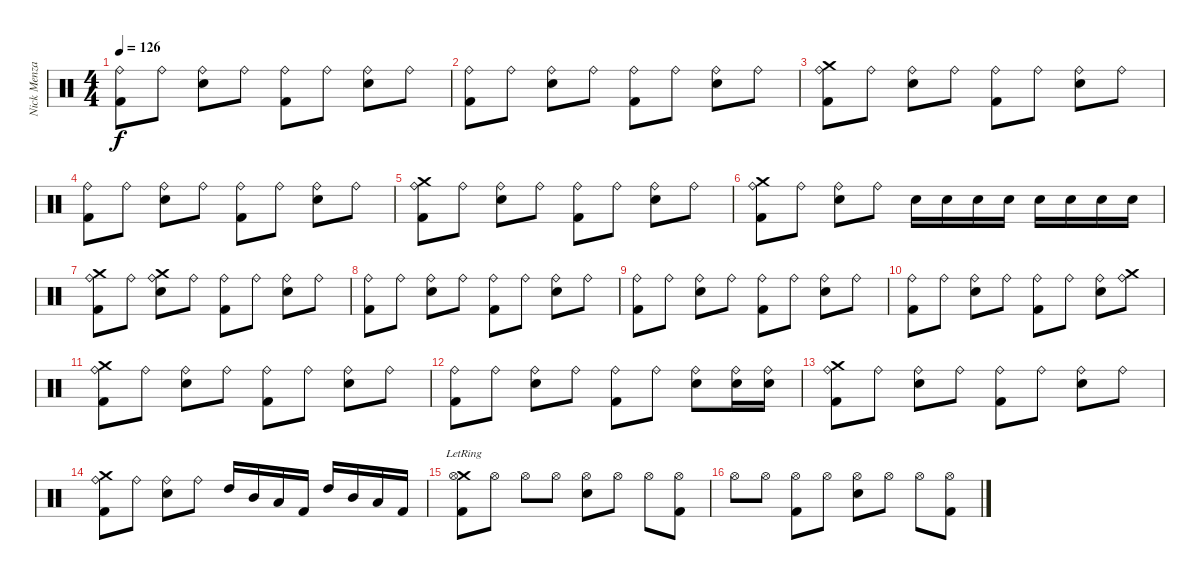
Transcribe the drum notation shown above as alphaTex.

\track ("Nick Menza" "Nick Menza") {instrument percussion}
\staff {score}
\articulation defaults
\ts (4 4)
\tempo 126
\clef neutral
\ks c
("Ride (bell)" "Kick (hit) 2").8{dy f} "Ride (bell)".8 ("Electric Snare (hit)" "Ride (bell)").8 "Ride (bell)".8 ("Ride (bell)" "Kick (hit) 2").8 "Ride (bell)".8 ("Electric Snare (hit)" "Ride (bell)").8 "Ride (bell)".8 |
("Ride (bell)" "Kick (hit) 2").8 "Ride (bell)".8 ("Electric Snare (hit)" "Ride (bell)").8 "Ride (bell)".8 ("Ride (bell)" "Kick (hit) 2").8 "Ride (bell)".8 ("Electric Snare (hit)" "Ride (bell)").8 "Ride (bell)".8 |
("Crash medium (hit)" "Ride (bell)" "Kick (hit) 2").8 "Ride (bell)".8 ("Electric Snare (hit)" "Ride (bell)").8 "Ride (bell)".8 ("Ride (bell)" "Kick (hit) 2").8 "Ride (bell)".8 ("Electric Snare (hit)" "Ride (bell)").8 "Ride (bell)".8 |
("Ride (bell)" "Kick (hit) 2").8 "Ride (bell)".8 ("Electric Snare (hit)" "Ride (bell)").8 "Ride (bell)".8 ("Ride (bell)" "Kick (hit) 2").8 "Ride (bell)".8 ("Electric Snare (hit)" "Ride (bell)").8 "Ride (bell)".8 |
("Crash medium (hit)" "Ride (bell)" "Kick (hit) 2").8 "Ride (bell)".8 ("Electric Snare (hit)" "Ride (bell)").8 "Ride (bell)".8 ("Ride (bell)" "Kick (hit) 2").8 "Ride (bell)".8 ("Electric Snare (hit)" "Ride (bell)").8 "Ride (bell)".8 |
("Crash medium (hit)" "Ride (bell)" "Kick (hit) 2").8 "Ride (bell)".8 ("Electric Snare (hit)" "Ride (bell)").8 "Ride (bell)".8 "Electric Snare (hit)".16 "Electric Snare (hit)".16 "Electric Snare (hit)".16 "Electric Snare (hit)".16 "Electric Snare (hit)".16 "Electric Snare (hit)".16 "Electric Snare (hit)".16 "Electric Snare (hit)".16 |
("Crash medium (hit)" "Ride (bell)" "Kick (hit) 2").8 "Ride (bell)".8 ("Crash medium (hit)" "Ride (bell)" "Electric Snare (hit)").8 "Ride (bell)".8 ("Ride (bell)" "Kick (hit) 2").8 "Ride (bell)".8 ("Electric Snare (hit)" "Ride (bell)").8 "Ride (bell)".8 |
("Ride (bell)" "Kick (hit) 2").8 "Ride (bell)".8 ("Electric Snare (hit)" "Ride (bell)").8 "Ride (bell)".8 ("Ride (bell)" "Kick (hit) 2").8 "Ride (bell)".8 ("Electric Snare (hit)" "Ride (bell)").8 "Ride (bell)".8 |
("Ride (bell)" "Kick (hit) 2").8 "Ride (bell)".8 ("Electric Snare (hit)" "Ride (bell)").8 "Ride (bell)".8 ("Ride (bell)" "Kick (hit) 2").8 "Ride (bell)".8 ("Electric Snare (hit)" "Ride (bell)").8 "Ride (bell)".8 |
("Ride (bell)" "Kick (hit) 2").8 "Ride (bell)".8 ("Electric Snare (hit)" "Ride (bell)").8 "Ride (bell)".8 ("Ride (bell)" "Kick (hit) 2").8 "Ride (bell)".8 ("Electric Snare (hit)" "Ride (bell)").8 ("Crash medium (hit)" "Ride (bell)").8 |
("Crash medium (hit)" "Ride (bell)" "Kick (hit) 2").8 "Ride (bell)".8 ("Electric Snare (hit)" "Ride (bell)").8 "Ride (bell)".8 ("Ride (bell)" "Kick (hit) 2").8 "Ride (bell)".8 ("Electric Snare (hit)" "Ride (bell)").8 "Ride (bell)".8 |
("Ride (bell)" "Kick (hit) 2").8 "Ride (bell)".8 ("Electric Snare (hit)" "Ride (bell)").8 "Ride (bell)".8 ("Ride (bell)" "Kick (hit) 2").8 "Ride (bell)".8 ("Electric Snare (hit)" "Ride (bell)").8 ("Electric Snare (hit)" "Ride (bell)").16 ("Electric Snare (hit)" "Ride (bell)").16 |
("Crash medium (hit)" "Ride (bell)" "Kick (hit) 2").8 "Ride (bell)".8 ("Electric Snare (hit)" "Ride (bell)").8 "Ride (bell)".8 ("Ride (bell)" "Kick (hit) 2").8 "Ride (bell)".8 ("Electric Snare (hit)" "Ride (bell)").8 "Ride (bell)".8 |
("Crash medium (hit)" "Ride (bell)" "Kick (hit) 2").8 "Ride (bell)".8 ("Electric Snare (hit)" "Ride (bell)").8 "Ride (bell)".8 "High Tom (hit)".16 "Mid Tom (hit)".16 "Low Tom (hit)".16 "Kick (hit) 2".16 "High Tom (hit)".16 "Mid Tom (hit)".16 "Low Tom (hit)".16 "Kick (hit) 2".16 |
("Crash medium (hit)"{lr} "Hi-Hat (open)" "Kick (hit) 2").8 "Hi-Hat (open)".8 "Hi-Hat (open)".8 "Hi-Hat (open)".8 ("Hi-Hat (open)" "Electric Snare (hit)").8 "Hi-Hat (open)".8 "Hi-Hat (open)".8 ("Hi-Hat (open)" "Kick (hit) 2").8 |
"Hi-Hat (open)".8 "Hi-Hat (open)".8 ("Hi-Hat (open)" "Kick (hit) 2").8 "Hi-Hat (open)".8 ("Hi-Hat (open)" "Electric Snare (hit)").8 "Hi-Hat (open)".8 "Hi-Hat (open)".8 ("Hi-Hat (open)" "Kick (hit) 2").8
